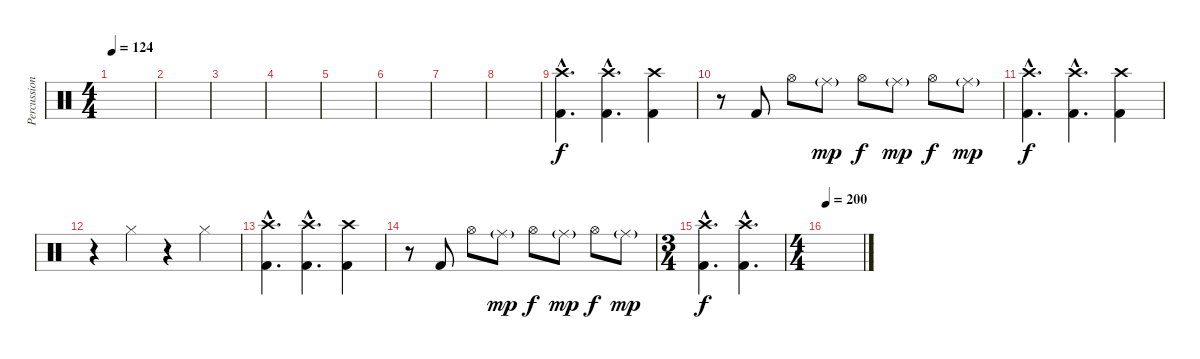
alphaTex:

\track ("Percussion" "Percussion") {instrument percussion}
\staff {score}
\articulation defaults
\ts (4 4)
\tempo 124
\clef neutral
\ks c
|
|
|
|
|
|
|
|
("Crash high (hit)"{hac} "Kick (hit) 2"{hac}).4{d} ("Crash high (hit)"{hac} "Kick (hit) 2"{hac}).4{d} ("Crash high (hit)" "Kick (hit) 2").4 |
r.8 "Kick (hit) 2".8 "Hi-Hat (open)".8 "Ride (middle)"{g}.8{dy mp} "Hi-Hat (open)".8{dy f} "Ride (middle)"{g}.8{dy mp} "Hi-Hat (open)".8{dy f} "Ride (middle)"{g}.8{dy mp} |
("Crash high (hit)"{hac} "Kick (hit) 2"{hac}).4{d dy f} ("Crash high (hit)"{hac} "Kick (hit) 2"{hac}).4{d} ("Crash high (hit)" "Kick (hit) 2").4 |
r.4 "Hi-Hat (closed)".4 r.4 "Hi-Hat (closed)".4 |
("Crash high (hit)"{hac} "Kick (hit) 2"{hac}).4{d} ("Crash high (hit)"{hac} "Kick (hit) 2"{hac}).4{d} ("Crash high (hit)" "Kick (hit) 2").4 |
r.8 "Kick (hit) 2".8 "Hi-Hat (open)".8 "Ride (middle)"{g}.8{dy mp} "Hi-Hat (open)".8{dy f} "Ride (middle)"{g}.8{dy mp} "Hi-Hat (open)".8{dy f} "Ride (middle)"{g}.8{dy mp} |
\ts (3 4)
("Crash high (hit)"{hac} "Kick (hit) 2"{hac}).4{d dy f} ("Crash high (hit)"{hac} "Kick (hit) 2"{hac}).4{d} |
\ts (4 4)
\tempo 200
